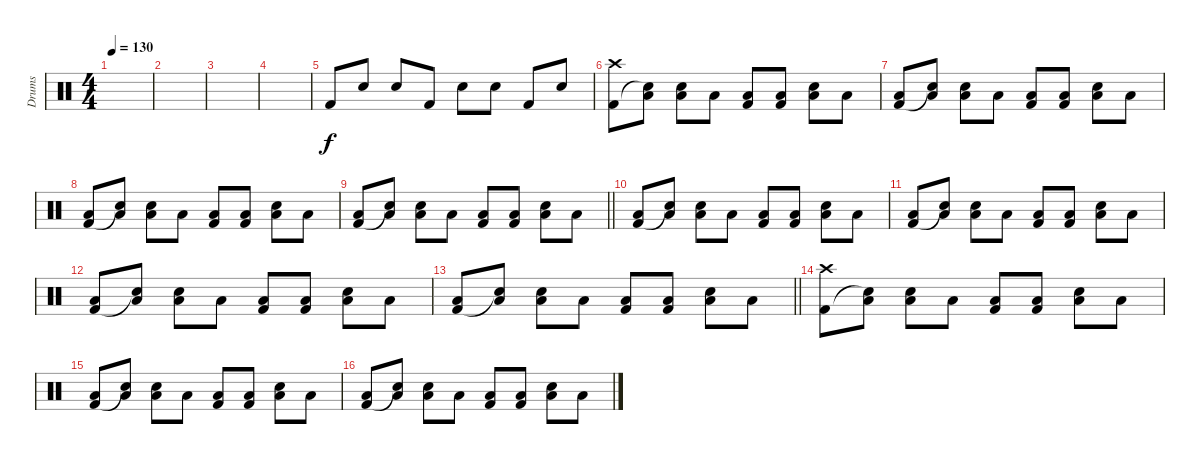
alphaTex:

\track ("Drums" "Drums") {instrument percussion}
\staff {score}
\articulation defaults
\ts (4 4)
\tempo 130
\clef neutral
\ks c
|
|
|
|
"Kick (hit) 2".8 "Snare (hit) 2".8 "Snare (hit) 2".8 "Kick (hit) 2".8 "Snare (hit) 2".8 "Snare (hit) 2".8 "Kick (hit) 2".8 "Snare (hit) 2".8 |
("Crash high (hit)" "Kick (hit) 2").8 ("Low Floor Tom (hit)" "Snare (hit)"{t}).8 ("Low Floor Tom (hit)" "Snare (hit) 2").8 "Low Floor Tom (hit)".8 ("Low Floor Tom (hit)" "Kick (hit) 2").8 ("Low Floor Tom (hit)" "Kick (hit) 2").8 ("Low Floor Tom (hit)" "Snare (hit) 2").8 "Low Floor Tom (hit)".8 |
("Low Floor Tom (hit)" "Kick (hit) 2").8 ("Low Floor Tom (hit)" "Snare (hit)"{t}).8 ("Low Floor Tom (hit)" "Snare (hit) 2").8 "Low Floor Tom (hit)".8 ("Low Floor Tom (hit)" "Kick (hit) 2").8 ("Low Floor Tom (hit)" "Kick (hit) 2").8 ("Low Floor Tom (hit)" "Snare (hit) 2").8 "Low Floor Tom (hit)".8 |
("Low Floor Tom (hit)" "Kick (hit) 2").8 ("Low Floor Tom (hit)" "Snare (hit)"{t}).8 ("Low Floor Tom (hit)" "Snare (hit) 2").8 "Low Floor Tom (hit)".8 ("Low Floor Tom (hit)" "Kick (hit) 2").8 ("Low Floor Tom (hit)" "Kick (hit) 2").8 ("Low Floor Tom (hit)" "Snare (hit) 2").8 "Low Floor Tom (hit)".8 |
\barLineRight lightlight
("Low Floor Tom (hit)" "Kick (hit) 2").8 ("Low Floor Tom (hit)" "Snare (hit)"{t}).8 ("Low Floor Tom (hit)" "Snare (hit) 2").8 "Low Floor Tom (hit)".8 ("Low Floor Tom (hit)" "Kick (hit) 2").8 ("Low Floor Tom (hit)" "Kick (hit) 2").8 ("Low Floor Tom (hit)" "Snare (hit) 2").8 "Low Floor Tom (hit)".8 |
("Low Floor Tom (hit)" "Kick (hit) 2").8 ("Low Floor Tom (hit)" "Snare (hit)"{t}).8 ("Low Floor Tom (hit)" "Snare (hit) 2").8 "Low Floor Tom (hit)".8 ("Low Floor Tom (hit)" "Kick (hit) 2").8 ("Low Floor Tom (hit)" "Kick (hit) 2").8 ("Low Floor Tom (hit)" "Snare (hit) 2").8 "Low Floor Tom (hit)".8 |
("Low Floor Tom (hit)" "Kick (hit) 2").8 ("Low Floor Tom (hit)" "Snare (hit)"{t}).8 ("Low Floor Tom (hit)" "Snare (hit) 2").8 "Low Floor Tom (hit)".8 ("Low Floor Tom (hit)" "Kick (hit) 2").8 ("Low Floor Tom (hit)" "Kick (hit) 2").8 ("Low Floor Tom (hit)" "Snare (hit) 2").8 "Low Floor Tom (hit)".8 |
("Low Floor Tom (hit)" "Kick (hit) 2").8 ("Low Floor Tom (hit)" "Snare (hit)"{t}).8 ("Low Floor Tom (hit)" "Snare (hit) 2").8 "Low Floor Tom (hit)".8 ("Low Floor Tom (hit)" "Kick (hit) 2").8 ("Low Floor Tom (hit)" "Kick (hit) 2").8 ("Low Floor Tom (hit)" "Snare (hit) 2").8 "Low Floor Tom (hit)".8 |
\barLineRight lightlight
("Low Floor Tom (hit)" "Kick (hit) 2").8 ("Low Floor Tom (hit)" "Snare (hit)"{t}).8 ("Low Floor Tom (hit)" "Snare (hit) 2").8 "Low Floor Tom (hit)".8 ("Low Floor Tom (hit)" "Kick (hit) 2").8 ("Low Floor Tom (hit)" "Kick (hit) 2").8 ("Low Floor Tom (hit)" "Snare (hit) 2").8 "Low Floor Tom (hit)".8 |
("Crash high (hit)" "Kick (hit) 2").8 ("Low Floor Tom (hit)" "Snare (hit)"{t}).8 ("Low Floor Tom (hit)" "Snare (hit) 2").8 "Low Floor Tom (hit)".8 ("Low Floor Tom (hit)" "Kick (hit) 2").8 ("Low Floor Tom (hit)" "Kick (hit) 2").8 ("Low Floor Tom (hit)" "Snare (hit) 2").8 "Low Floor Tom (hit)".8 |
("Low Floor Tom (hit)" "Kick (hit) 2").8 ("Low Floor Tom (hit)" "Snare (hit)"{t}).8 ("Low Floor Tom (hit)" "Snare (hit) 2").8 "Low Floor Tom (hit)".8 ("Low Floor Tom (hit)" "Kick (hit) 2").8 ("Low Floor Tom (hit)" "Kick (hit) 2").8 ("Low Floor Tom (hit)" "Snare (hit) 2").8 "Low Floor Tom (hit)".8 |
("Low Floor Tom (hit)" "Kick (hit) 2").8 ("Low Floor Tom (hit)" "Snare (hit)"{t}).8 ("Low Floor Tom (hit)" "Snare (hit) 2").8 "Low Floor Tom (hit)".8 ("Low Floor Tom (hit)" "Kick (hit) 2").8 ("Low Floor Tom (hit)" "Kick (hit) 2").8 ("Low Floor Tom (hit)" "Snare (hit) 2").8 "Low Floor Tom (hit)".8
